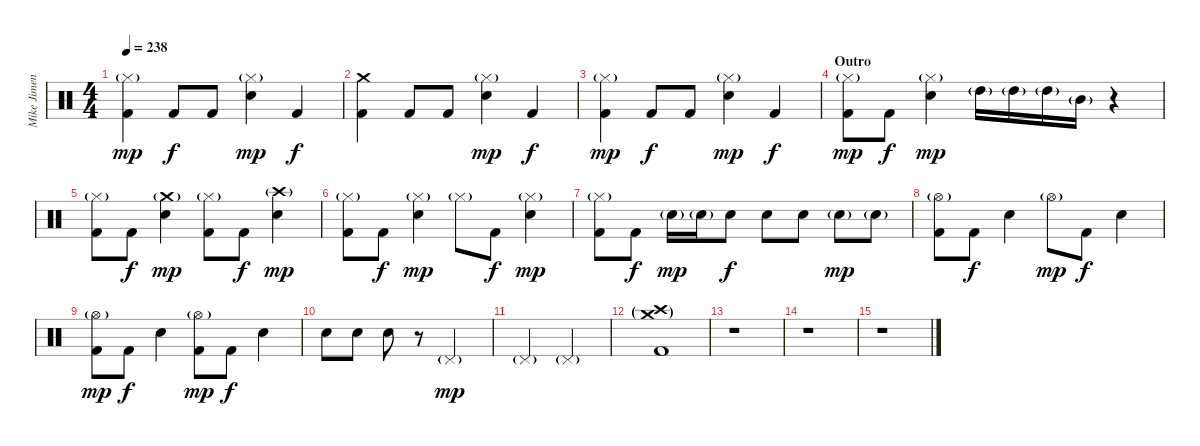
\track ("Mike Jimenez" "Mike Jimen") {instrument percussion}
\staff {score}
\articulation defaults
\ts (4 4)
\tempo 238
\clef neutral
\ks c
("Hi-Hat (closed)"{g} "Kick (hit) 2").4{dy mp} "Kick (hit) 2".8{dy f} "Kick (hit) 2".8 ("Hi-Hat (closed)"{g} "Electric Snare (hit)").4{dy mp} "Kick (hit) 2".4{dy f} |
("Crash medium (hit)" "Kick (hit) 2").4 "Kick (hit) 2".8 "Kick (hit) 2".8 ("Hi-Hat (closed)"{g} "Electric Snare (hit)").4{dy mp} "Kick (hit) 2".4{dy f} |
("Hi-Hat (closed)"{g} "Kick (hit) 2").4{dy mp} "Kick (hit) 2".8{dy f} "Kick (hit) 2".8 ("Hi-Hat (closed)"{g} "Electric Snare (hit)").4{dy mp} "Kick (hit) 2".4{dy f} |
\section ("" "Outro")
("Hi-Hat (closed)"{g} "Kick (hit) 2").8{dy mp} "Kick (hit) 2".8{dy f} ("Hi-Hat (closed)"{g} "Electric Snare (hit)").4{dy mp} "High Tom (hit)"{g}.16 "High Tom (hit)"{g}.16 "High Tom (hit)"{g}.16 "Mid Tom (hit)"{g}.16 r.4 |
("Hi-Hat (closed)"{g} "Kick (hit) 2").8 "Kick (hit) 2".8{dy f} ("Crash medium (hit)"{g} "Electric Snare (hit)").4{dy mp} ("Hi-Hat (closed)"{g} "Kick (hit) 2").8 "Kick (hit) 2".8{dy f} ("Crash high (hit)"{g} "Electric Snare (hit)").4{dy mp} |
("Hi-Hat (closed)"{g} "Kick (hit) 2").8 "Kick (hit) 2".8{dy f} ("Hi-Hat (closed)"{g} "Electric Snare (hit)").4{dy mp} "Hi-Hat (closed)"{g}.8 "Kick (hit) 2".8{dy f} ("Hi-Hat (closed)"{g} "Electric Snare (hit)").4{dy mp} |
("Hi-Hat (closed)"{g} "Kick (hit) 2").8 "Kick (hit) 2".8{dy f} "Electric Snare (hit)"{g}.16{dy mp} "Electric Snare (hit)"{g}.16 "Electric Snare (hit)".8{dy f} "Electric Snare (hit)".8 "Electric Snare (hit)".8 "Electric Snare (hit)"{g}.8{dy mp} "Electric Snare (hit)"{g}.8 |
("Hi-Hat (open)"{g} "Kick (hit) 2").8 "Kick (hit) 2".8{dy f} "Electric Snare (hit)".4 "Hi-Hat (open)"{g}.8{dy mp} "Kick (hit) 2".8{dy f} "Electric Snare (hit)".4 |
("Hi-Hat (open)"{g} "Kick (hit) 2").8{dy mp} "Kick (hit) 2".8{dy f} "Electric Snare (hit)".4 ("Hi-Hat (open)"{g} "Kick (hit) 2").8{dy mp} "Kick (hit) 2".8{dy f} "Electric Snare (hit)".4 |
"Electric Snare (hit)".8 "Electric Snare (hit)".8 "Electric Snare (hit)".8 r.8 "Pedal Hi-Hat (hit)"{g}.2{dy mp} |
"Pedal Hi-Hat (hit)"{g}.2 "Pedal Hi-Hat (hit)"{g}.2 |
("Crash high (hit)"{g} "Crash medium (hit)"{g} "Kick (hit) 2").1 |
r.1 |
r.1 |
r.1
